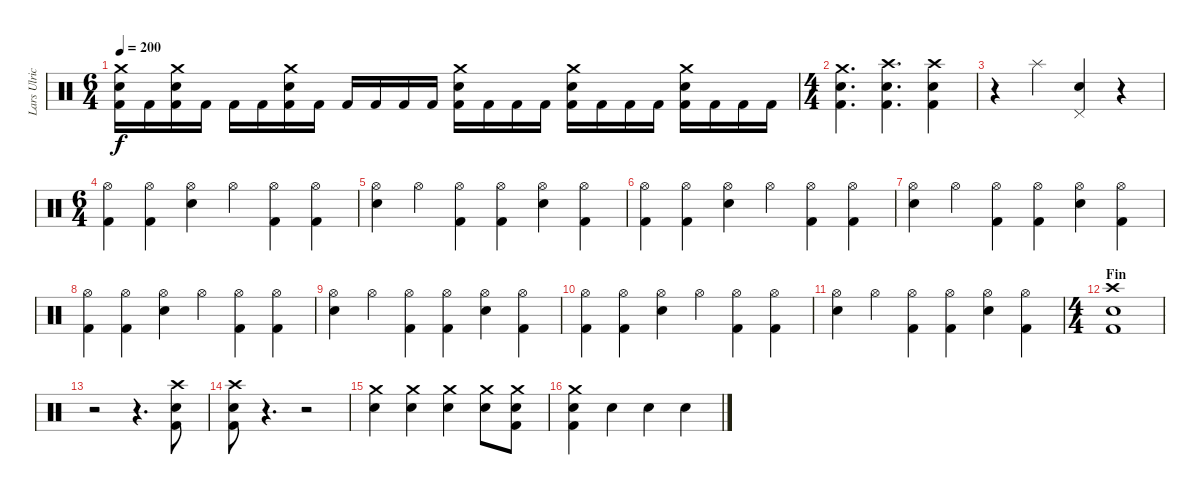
\track ("Lars Ulrich" "Lars Ulric") {instrument percussion}
\staff {score}
\articulation defaults
\ts (6 4)
\tempo 200
\clef neutral
\ks c
("Crash medium (hit)" "Electric Snare (hit)" "Kick (hit) 2").16{dy f} "Kick (hit) 2".16 ("Crash medium (hit)" "Electric Snare (hit)" "Kick (hit) 2").16 "Kick (hit) 2".16 "Kick (hit) 2".16 "Kick (hit) 2".16 ("Crash medium (hit)" "Electric Snare (hit)" "Kick (hit) 2").16 "Kick (hit) 2".16 "Kick (hit) 2".16 "Kick (hit) 2".16 "Kick (hit) 2".16 "Kick (hit) 2".16 ("Crash medium (hit)" "Electric Snare (hit)" "Kick (hit) 2").16 "Kick (hit) 2".16 "Kick (hit) 2".16 "Kick (hit) 2".16 ("Crash medium (hit)" "Electric Snare (hit)" "Kick (hit) 2").16 "Kick (hit) 2".16 "Kick (hit) 2".16 "Kick (hit) 2".16 ("Crash medium (hit)" "Electric Snare (hit)" "Kick (hit) 2").16 "Kick (hit) 2".16 "Kick (hit) 2".16 "Kick (hit) 2".16 |
\ts (4 4)
("Crash medium (hit)" "Electric Snare (hit)" "Kick (hit) 2").4{d} ("Crash high (hit)" "Electric Snare (hit)" "Kick (hit) 2").4{d} ("Crash high (hit)" "Electric Snare (hit)" "Kick (hit) 2").4 |
r.4 "Splash (hit)".4 ("Pedal Hi-Hat (hit)" "Electric Snare (hit)").4 r.4 |
\ts (6 4)
("Hi-Hat (open)" "Kick (hit) 2").4 ("Hi-Hat (open)" "Kick (hit) 2").4 ("Hi-Hat (open)" "Electric Snare (hit)").4 "Hi-Hat (open)".4 ("Hi-Hat (open)" "Kick (hit) 2").4 ("Hi-Hat (open)" "Kick (hit) 2").4 |
("Hi-Hat (open)" "Electric Snare (hit)").4 "Hi-Hat (open)".4 ("Hi-Hat (open)" "Kick (hit) 2").4 ("Hi-Hat (open)" "Kick (hit) 2").4 ("Hi-Hat (open)" "Electric Snare (hit)").4 ("Hi-Hat (open)" "Kick (hit) 2").4 |
("Hi-Hat (open)" "Kick (hit) 2").4 ("Hi-Hat (open)" "Kick (hit) 2").4 ("Hi-Hat (open)" "Electric Snare (hit)").4 "Hi-Hat (open)".4 ("Hi-Hat (open)" "Kick (hit) 2").4 ("Hi-Hat (open)" "Kick (hit) 2").4 |
("Hi-Hat (open)" "Electric Snare (hit)").4 "Hi-Hat (open)".4 ("Hi-Hat (open)" "Kick (hit) 2").4 ("Hi-Hat (open)" "Kick (hit) 2").4 ("Hi-Hat (open)" "Electric Snare (hit)").4 ("Hi-Hat (open)" "Kick (hit) 2").4 |
("Hi-Hat (open)" "Kick (hit) 2").4 ("Hi-Hat (open)" "Kick (hit) 2").4 ("Hi-Hat (open)" "Electric Snare (hit)").4 "Hi-Hat (open)".4 ("Hi-Hat (open)" "Kick (hit) 2").4 ("Hi-Hat (open)" "Kick (hit) 2").4 |
("Hi-Hat (open)" "Electric Snare (hit)").4 "Hi-Hat (open)".4 ("Hi-Hat (open)" "Kick (hit) 2").4 ("Hi-Hat (open)" "Kick (hit) 2").4 ("Hi-Hat (open)" "Electric Snare (hit)").4 ("Hi-Hat (open)" "Kick (hit) 2").4 |
("Hi-Hat (open)" "Kick (hit) 2").4 ("Hi-Hat (open)" "Kick (hit) 2").4 ("Hi-Hat (open)" "Electric Snare (hit)").4 "Hi-Hat (open)".4 ("Hi-Hat (open)" "Kick (hit) 2").4 ("Hi-Hat (open)" "Kick (hit) 2").4 |
("Hi-Hat (open)" "Electric Snare (hit)").4 "Hi-Hat (open)".4 ("Hi-Hat (open)" "Kick (hit) 2").4 ("Hi-Hat (open)" "Kick (hit) 2").4 ("Hi-Hat (open)" "Electric Snare (hit)").4 ("Hi-Hat (open)" "Kick (hit) 2").4 |
\ts (4 4)
\section ("" "Fin")
("Crash high (hit)" "Electric Snare (hit)" "Kick (hit) 2").1 |
r.2 r.4{d} ("Crash high (hit)" "Electric Snare (hit)" "Kick (hit) 2").8 |
("Crash high (hit)" "Electric Snare (hit)" "Kick (hit) 2").8 r.4{d} r.2 |
("Crash medium (hit)" "Electric Snare (hit)").4 ("Crash medium (hit)" "Electric Snare (hit)").4 ("Crash medium (hit)" "Electric Snare (hit)").4 ("Crash medium (hit)" "Electric Snare (hit)").8 ("Crash medium (hit)" "Electric Snare (hit)" "Kick (hit) 2").8 |
("Crash medium (hit)" "Electric Snare (hit)" "Kick (hit) 2").4 "Electric Snare (hit)".4 "Electric Snare (hit)".4 "Electric Snare (hit)".4
